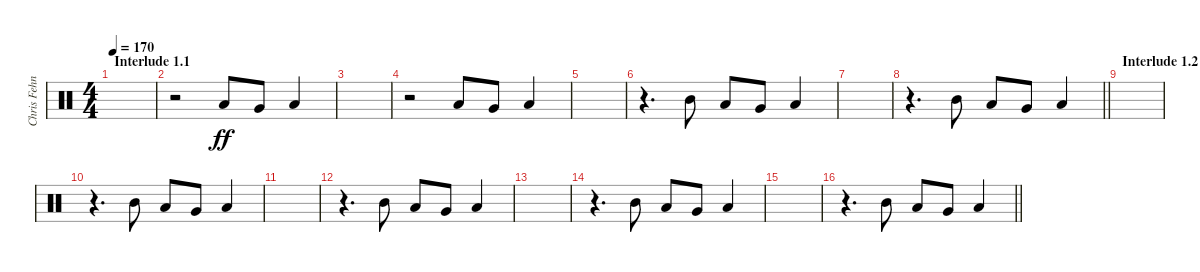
\track ("Chris Fehn" "Chris Fehn") {instrument percussion}
\staff {score}
\articulation defaults
\ts (4 4)
\section ("" "Interlude 1.1")
\tempo 170
\clef neutral
\ks c
|
r.2 "Low Tom (hit)".8{dy ff} "Very Low Tom (hit)".8 "Low Floor Tom (hit)".4 |
|
r.2 "Low Tom (hit)".8 "Very Low Tom (hit)".8 "Low Floor Tom (hit)".4 |
|
r.4{d} "Mid Tom (hit)".8 "Low Tom (hit)".8 "Very Low Tom (hit)".8 "Low Floor Tom (hit)".4 |
|
\barLineRight lightlight
r.4{d} "Mid Tom (hit)".8 "Low Tom (hit)".8 "Very Low Tom (hit)".8 "Low Floor Tom (hit)".4 |
\section ("" "Interlude 1.2")
|
r.4{d} "Mid Tom (hit)".8 "Low Tom (hit)".8 "Very Low Tom (hit)".8 "Low Floor Tom (hit)".4 |
|
r.4{d} "Mid Tom (hit)".8 "Low Tom (hit)".8 "Very Low Tom (hit)".8 "Low Floor Tom (hit)".4 |
|
r.4{d} "Mid Tom (hit)".8 "Low Tom (hit)".8 "Very Low Tom (hit)".8 "Low Floor Tom (hit)".4 |
|
\barLineRight lightlight
r.4{d} "Mid Tom (hit)".8 "Low Tom (hit)".8 "Very Low Tom (hit)".8 "Low Floor Tom (hit)".4
